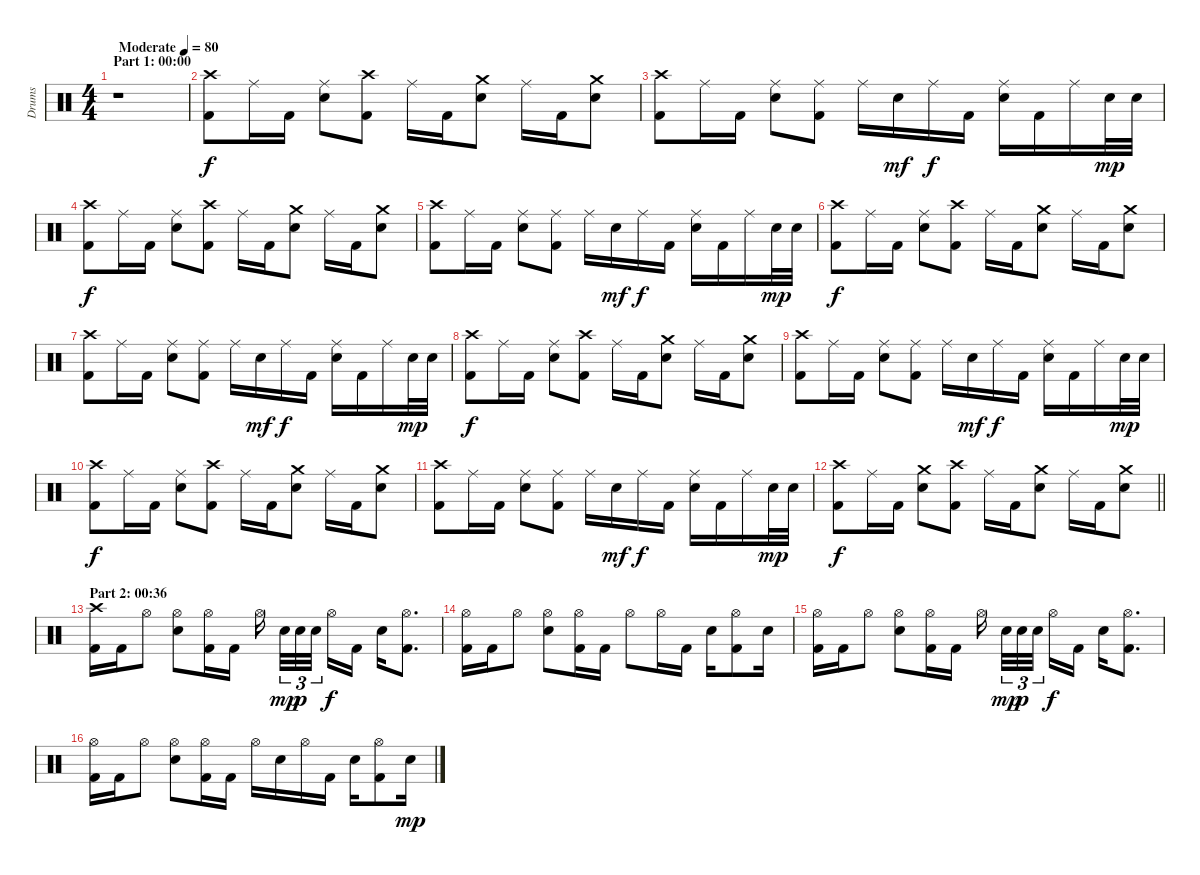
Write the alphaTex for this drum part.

\track ("Drums" "Drums") {instrument percussion}
\staff {score}
\articulation defaults
\ts (4 4)
\section ("" "Part 1: 00:00")
\tempo (80 "Moderate")
\clef neutral
\ks c
r.1{dy f} |
("Crash high (hit)" "Kick (hit) 2").8 "Ride (middle)".16 "Kick (hit) 2".16 ("Ride (middle)" "Electric Snare (hit)").8 ("Crash high (hit)" "Kick (hit) 2").8 "Ride (middle)".16 "Kick (hit) 2".16 ("Crash medium (hit)" "Electric Snare (hit)").8 "Ride (middle)".16 "Kick (hit) 2".16 ("Crash medium (hit)" "Electric Snare (hit)").8 |
("Crash high (hit)" "Kick (hit) 2").8 "Ride (middle)".16 "Kick (hit) 2".16 ("Ride (middle)" "Electric Snare (hit)").8 ("Ride (middle)" "Kick (hit) 2").8 "Ride (middle)".16 "Electric Snare (hit)".16{dy mf} "Ride (middle)".16{dy f} "Kick (hit) 2".16 ("Ride (middle)" "Electric Snare (hit)").16 "Kick (hit) 2".16 "Ride (middle)".16 "Electric Snare (hit)".32{dy mp} "Electric Snare (hit)".32 |
("Crash high (hit)" "Kick (hit) 2").8{dy f} "Ride (middle)".16 "Kick (hit) 2".16 ("Ride (middle)" "Electric Snare (hit)").8 ("Crash high (hit)" "Kick (hit) 2").8 "Ride (middle)".16 "Kick (hit) 2".16 ("Crash medium (hit)" "Electric Snare (hit)").8 "Ride (middle)".16 "Kick (hit) 2".16 ("Crash medium (hit)" "Electric Snare (hit)").8 |
("Crash high (hit)" "Kick (hit) 2").8 "Ride (middle)".16 "Kick (hit) 2".16 ("Ride (middle)" "Electric Snare (hit)").8 ("Ride (middle)" "Kick (hit) 2").8 "Ride (middle)".16 "Electric Snare (hit)".16{dy mf} "Ride (middle)".16{dy f} "Kick (hit) 2".16 ("Ride (middle)" "Electric Snare (hit)").16 "Kick (hit) 2".16 "Ride (middle)".16 "Electric Snare (hit)".32{dy mp} "Electric Snare (hit)".32 |
("Crash high (hit)" "Kick (hit) 2").8{dy f} "Ride (middle)".16 "Kick (hit) 2".16 ("Ride (middle)" "Electric Snare (hit)").8 ("Crash high (hit)" "Kick (hit) 2").8 "Ride (middle)".16 "Kick (hit) 2".16 ("Crash medium (hit)" "Electric Snare (hit)").8 "Ride (middle)".16 "Kick (hit) 2".16 ("Crash medium (hit)" "Electric Snare (hit)").8 |
("Crash high (hit)" "Kick (hit) 2").8 "Ride (middle)".16 "Kick (hit) 2".16 ("Ride (middle)" "Electric Snare (hit)").8 ("Ride (middle)" "Kick (hit) 2").8 "Ride (middle)".16 "Electric Snare (hit)".16{dy mf} "Ride (middle)".16{dy f} "Kick (hit) 2".16 ("Ride (middle)" "Electric Snare (hit)").16 "Kick (hit) 2".16 "Ride (middle)".16 "Electric Snare (hit)".32{dy mp} "Electric Snare (hit)".32 |
("Crash high (hit)" "Kick (hit) 2").8{dy f} "Ride (middle)".16 "Kick (hit) 2".16 ("Ride (middle)" "Electric Snare (hit)").8 ("Crash high (hit)" "Kick (hit) 2").8 "Ride (middle)".16 "Kick (hit) 2".16 ("Crash medium (hit)" "Electric Snare (hit)").8 "Ride (middle)".16 "Kick (hit) 2".16 ("Crash medium (hit)" "Electric Snare (hit)").8 |
("Crash high (hit)" "Kick (hit) 2").8 "Ride (middle)".16 "Kick (hit) 2".16 ("Ride (middle)" "Electric Snare (hit)").8 ("Ride (middle)" "Kick (hit) 2").8 "Ride (middle)".16 "Electric Snare (hit)".16{dy mf} "Ride (middle)".16{dy f} "Kick (hit) 2".16 ("Ride (middle)" "Electric Snare (hit)").16 "Kick (hit) 2".16 "Ride (middle)".16 "Electric Snare (hit)".32{dy mp} "Electric Snare (hit)".32 |
("Crash high (hit)" "Kick (hit) 2").8{dy f} "Ride (middle)".16 "Kick (hit) 2".16 ("Ride (middle)" "Electric Snare (hit)").8 ("Crash high (hit)" "Kick (hit) 2").8 "Ride (middle)".16 "Kick (hit) 2".16 ("Crash medium (hit)" "Electric Snare (hit)").8 "Ride (middle)".16 "Kick (hit) 2".16 ("Crash medium (hit)" "Electric Snare (hit)").8 |
("Crash high (hit)" "Kick (hit) 2").8 "Ride (middle)".16 "Kick (hit) 2".16 ("Ride (middle)" "Electric Snare (hit)").8 ("Ride (middle)" "Kick (hit) 2").8 "Ride (middle)".16 "Electric Snare (hit)".16{dy mf} "Ride (middle)".16{dy f} "Kick (hit) 2".16 ("Ride (middle)" "Electric Snare (hit)").16 "Kick (hit) 2".16 "Ride (middle)".16 "Electric Snare (hit)".32{dy mp} "Electric Snare (hit)".32 |
\barLineRight lightlight
("Crash high (hit)" "Kick (hit) 2").8{dy f} "Ride (middle)".16 "Kick (hit) 2".16 ("Crash medium (hit)" "Electric Snare (hit)").8 ("Crash high (hit)" "Kick (hit) 2").8 "Ride (middle)".16 "Kick (hit) 2".16 ("Crash medium (hit)" "Electric Snare (hit)").8 "Ride (middle)".16 "Kick (hit) 2".16 ("Crash medium (hit)" "Electric Snare (hit)").8 |
\section ("" "Part 2: 00:36")
("Crash high (hit)" "Kick (hit) 2").16 "Kick (hit) 2".16 "Hi-Hat (open)".8 ("Hi-Hat (open)" "Electric Snare (hit)").8 ("Hi-Hat (open)" "Kick (hit) 2").16 "Kick (hit) 2".16 "Hi-Hat (open)".16{beam splitsecondary} "Electric Snare (hit)".32{tu (3 2) dy mp} "Electric Snare (hit)".32{tu (3 2) dy p} "Electric Snare (hit)".32{tu (3 2) beam splitsecondary} "Hi-Hat (open)".16{dy f} "Kick (hit) 2".16 "Electric Snare (hit)".16 ("Hi-Hat (open)" "Kick (hit) 2").8{d} |
("Hi-Hat (open)" "Kick (hit) 2").16 "Kick (hit) 2".16 "Hi-Hat (open)".8 ("Hi-Hat (open)" "Electric Snare (hit)").8 ("Hi-Hat (open)" "Kick (hit) 2").16 "Kick (hit) 2".16 "Hi-Hat (open)".8 "Hi-Hat (open)".16 "Kick (hit) 2".16 "Electric Snare (hit)".16 ("Hi-Hat (open)" "Kick (hit) 2").8 "Electric Snare (hit)".16 |
("Hi-Hat (open)" "Kick (hit) 2").16 "Kick (hit) 2".16 "Hi-Hat (open)".8 ("Hi-Hat (open)" "Electric Snare (hit)").8 ("Hi-Hat (open)" "Kick (hit) 2").16 "Kick (hit) 2".16 "Hi-Hat (open)".16{beam splitsecondary} "Electric Snare (hit)".32{tu (3 2) dy mp} "Electric Snare (hit)".32{tu (3 2) dy p} "Electric Snare (hit)".32{tu (3 2) beam splitsecondary} "Hi-Hat (open)".16{dy f} "Kick (hit) 2".16 "Electric Snare (hit)".16 ("Hi-Hat (open)" "Kick (hit) 2").8{d} |
("Hi-Hat (open)" "Kick (hit) 2").16 "Kick (hit) 2".16 "Hi-Hat (open)".8 ("Hi-Hat (open)" "Electric Snare (hit)").8 ("Hi-Hat (open)" "Kick (hit) 2").16 "Kick (hit) 2".16 "Hi-Hat (open)".16 "Electric Snare (hit)".16 "Hi-Hat (open)".16 "Kick (hit) 2".16 "Electric Snare (hit)".16 ("Hi-Hat (open)" "Kick (hit) 2").8 "Electric Snare (hit)".16{dy mp}
